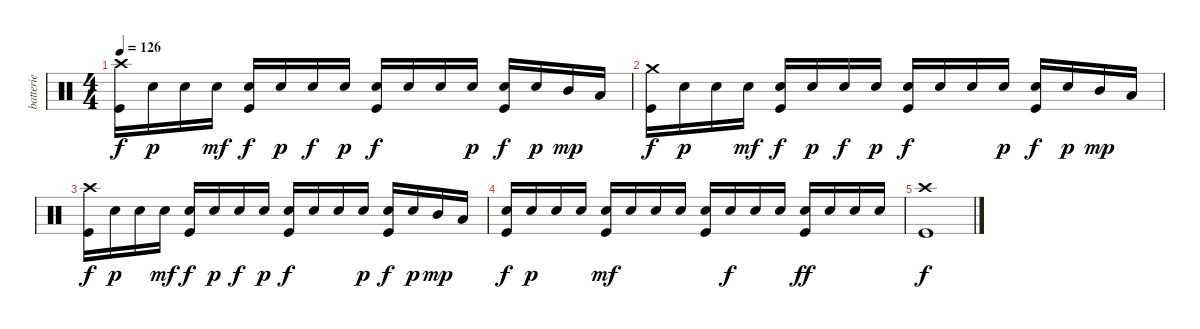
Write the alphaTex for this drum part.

\track ("batterie" "batterie") {instrument percussion}
\staff {score}
\articulation defaults
\ts (4 4)
\tempo 126
\clef neutral
\ks c
("Crash high (hit)" "Kick (hit)").16{dy f} "Electric Snare (hit)".16{dy p} "Electric Snare (hit)".16 "Electric Snare (hit)".16{dy mf} ("Electric Snare (hit)" "Kick (hit)").16{dy f} "Electric Snare (hit)".16{dy p} "Electric Snare (hit)".16{dy f} "Electric Snare (hit)".16{dy p} ("Electric Snare (hit)" "Kick (hit)").16{dy f} "Electric Snare (hit)".16 "Electric Snare (hit)".16 "Electric Snare (hit)".16{dy p} ("Electric Snare (hit)" "Kick (hit)").16{dy f} "Electric Snare (hit)".16{dy p} "Mid Tom (hit)".16{dy mp} "Low Tom (hit)".16 |
("Crash medium (hit)" "Kick (hit)").16{dy f} "Electric Snare (hit)".16{dy p} "Electric Snare (hit)".16 "Electric Snare (hit)".16{dy mf} ("Electric Snare (hit)" "Kick (hit)").16{dy f} "Electric Snare (hit)".16{dy p} "Electric Snare (hit)".16{dy f} "Electric Snare (hit)".16{dy p} ("Electric Snare (hit)" "Kick (hit)").16{dy f} "Electric Snare (hit)".16 "Electric Snare (hit)".16 "Electric Snare (hit)".16{dy p} ("Electric Snare (hit)" "Kick (hit)").16{dy f} "Electric Snare (hit)".16{dy p} "Mid Tom (hit)".16{dy mp} "Low Tom (hit)".16 |
("Crash high (hit)" "Kick (hit)").16{dy f} "Electric Snare (hit)".16{dy p} "Electric Snare (hit)".16 "Electric Snare (hit)".16{dy mf} ("Electric Snare (hit)" "Kick (hit)").16{dy f} "Electric Snare (hit)".16{dy p} "Electric Snare (hit)".16{dy f} "Electric Snare (hit)".16{dy p} ("Electric Snare (hit)" "Kick (hit)").16{dy f} "Electric Snare (hit)".16 "Electric Snare (hit)".16 "Electric Snare (hit)".16{dy p} ("Electric Snare (hit)" "Kick (hit)").16{dy f} "Electric Snare (hit)".16{dy p} "Mid Tom (hit)".16{dy mp} "Low Tom (hit)".16 |
("Electric Snare (hit)" "Kick (hit)").16{dy f} "Electric Snare (hit)".16{dy p} "Electric Snare (hit)".16 "Electric Snare (hit)".16 ("Electric Snare (hit)" "Kick (hit)").16{dy mf} "Electric Snare (hit)".16 "Electric Snare (hit)".16 "Electric Snare (hit)".16 ("Electric Snare (hit)" "Kick (hit)").16 "Electric Snare (hit)".16{dy f} "Electric Snare (hit)".16 "Electric Snare (hit)".16 ("Electric Snare (hit)" "Kick (hit)").16{dy ff} "Electric Snare (hit)".16 "Electric Snare (hit)".16 "Electric Snare (hit)".16 |
("Crash high (hit)" "Kick (hit)").1{dy f}
